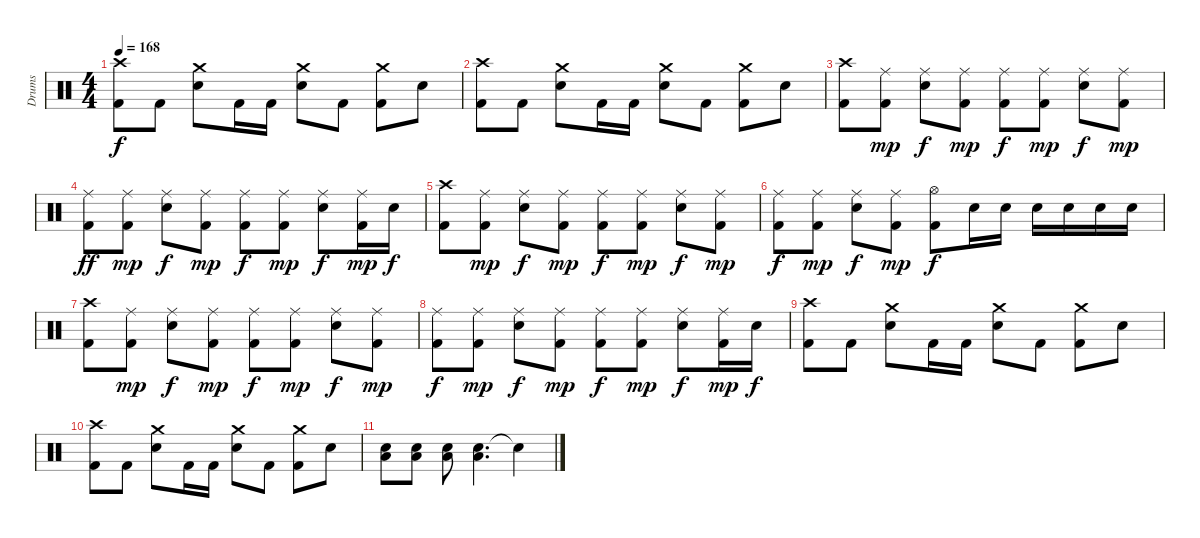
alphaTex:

\track ("Drums" "Drums") {instrument percussion}
\staff {score}
\articulation defaults
\ts (4 4)
\tempo 168
\clef neutral
\ks c
("Crash high (hit)" "Kick (hit) 2").8{dy f} "Kick (hit) 2".8 ("Crash medium (hit)" "Electric Snare (hit)").8 "Kick (hit) 2".16 "Kick (hit) 2".16 ("Crash medium (hit)" "Electric Snare (hit)").8 "Kick (hit) 2".8 ("Crash medium (hit)" "Kick (hit) 2").8 "Electric Snare (hit)".8 |
("Crash high (hit)" "Kick (hit) 2").8 "Kick (hit) 2".8 ("Crash medium (hit)" "Electric Snare (hit)").8 "Kick (hit) 2".16 "Kick (hit) 2".16 ("Crash medium (hit)" "Electric Snare (hit)").8 "Kick (hit) 2".8 ("Crash medium (hit)" "Kick (hit) 2").8 "Electric Snare (hit)".8 |
("Crash high (hit)" "Kick (hit) 2").8 ("Ride (middle)" "Kick (hit) 2").8{dy mp} ("Ride (middle)" "Electric Snare (hit)").8{dy f} ("Ride (middle)" "Kick (hit) 2").8{dy mp} ("Ride (middle)" "Kick (hit) 2").8{dy f} ("Ride (middle)" "Kick (hit) 2").8{dy mp} ("Ride (middle)" "Electric Snare (hit)").8{dy f} ("Ride (middle)" "Kick (hit) 2").8{dy mp} |
("Ride (middle)" "Kick (hit) 2").8{dy ff} ("Ride (middle)" "Kick (hit) 2").8{dy mp} ("Ride (middle)" "Electric Snare (hit)").8{dy f} ("Ride (middle)" "Kick (hit) 2").8{dy mp} ("Ride (middle)" "Kick (hit) 2").8{dy f} ("Ride (middle)" "Kick (hit) 2").8{dy mp} ("Ride (middle)" "Electric Snare (hit)").8{dy f} ("Ride (middle)" "Kick (hit) 2").16{dy mp} "Electric Snare (hit)".16{dy f} |
("Crash high (hit)" "Kick (hit) 2").8 ("Ride (middle)" "Kick (hit) 2").8{dy mp} ("Ride (middle)" "Electric Snare (hit)").8{dy f} ("Ride (middle)" "Kick (hit) 2").8{dy mp} ("Ride (middle)" "Kick (hit) 2").8{dy f} ("Ride (middle)" "Kick (hit) 2").8{dy mp} ("Ride (middle)" "Electric Snare (hit)").8{dy f} ("Ride (middle)" "Kick (hit) 2").8{dy mp} |
("Ride (middle)" "Kick (hit) 2").8{dy f} ("Ride (middle)" "Kick (hit) 2").8{dy mp} ("Ride (middle)" "Electric Snare (hit)").8{dy f} ("Ride (middle)" "Kick (hit) 2").8{dy mp} ("Hi-Hat (open)" "Kick (hit) 2").8{dy f} "Electric Snare (hit)".16 "Electric Snare (hit)".16 "Electric Snare (hit)".16 "Electric Snare (hit)".16 "Electric Snare (hit)".16 "Electric Snare (hit)".16 |
("Crash high (hit)" "Kick (hit) 2").8 ("Ride (middle)" "Kick (hit) 2").8{dy mp} ("Ride (middle)" "Electric Snare (hit)").8{dy f} ("Ride (middle)" "Kick (hit) 2").8{dy mp} ("Ride (middle)" "Kick (hit) 2").8{dy f} ("Ride (middle)" "Kick (hit) 2").8{dy mp} ("Ride (middle)" "Electric Snare (hit)").8{dy f} ("Ride (middle)" "Kick (hit) 2").8{dy mp} |
("Ride (middle)" "Kick (hit) 2").8{dy f} ("Ride (middle)" "Kick (hit) 2").8{dy mp} ("Ride (middle)" "Electric Snare (hit)").8{dy f} ("Ride (middle)" "Kick (hit) 2").8{dy mp} ("Ride (middle)" "Kick (hit) 2").8{dy f} ("Ride (middle)" "Kick (hit) 2").8{dy mp} ("Ride (middle)" "Electric Snare (hit)").8{dy f} ("Ride (middle)" "Kick (hit) 2").16{dy mp} "Electric Snare (hit)".16{dy f} |
("Crash high (hit)" "Kick (hit) 2").8 "Kick (hit) 2".8 ("Crash medium (hit)" "Electric Snare (hit)").8 "Kick (hit) 2".16 "Kick (hit) 2".16 ("Crash medium (hit)" "Electric Snare (hit)").8 "Kick (hit) 2".8 ("Crash medium (hit)" "Kick (hit) 2").8 "Electric Snare (hit)".8 |
("Crash high (hit)" "Kick (hit) 2").8 "Kick (hit) 2".8 ("Crash medium (hit)" "Electric Snare (hit)").8 "Kick (hit) 2".16 "Kick (hit) 2".16 ("Crash medium (hit)" "Electric Snare (hit)").8 "Kick (hit) 2".8 ("Crash medium (hit)" "Kick (hit) 2").8 "Electric Snare (hit)".8 |
("Electric Snare (hit)" "Low Floor Tom (hit)").8 ("Electric Snare (hit)" "Low Floor Tom (hit)").8 ("Electric Snare (hit)" "Low Floor Tom (hit)").8 ("Electric Snare (hit)" "Low Floor Tom (hit)").4{d} "Snare (hit)"{t}.4
